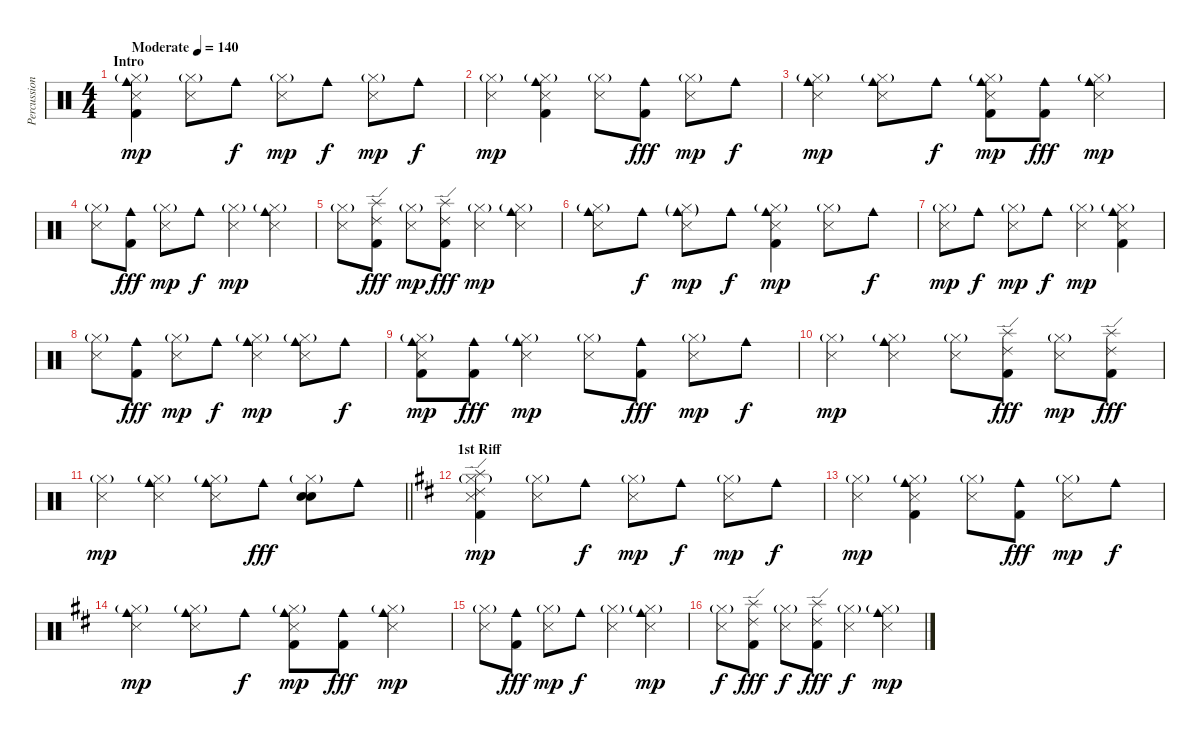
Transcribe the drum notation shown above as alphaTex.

\track ("Percussions" "Percussion") {instrument percussion}
\staff {score}
\articulation defaults
\ts (4 4)
\section ("" "Intro")
\tempo (140 "Moderate")
\clef neutral
\ks c
("Cowbell medium (hit)" "Snare (side stick) 3" "Kick (hit) 2" "Hi-Hat (closed)"{g}).4{dy mp} ("Snare (side stick) 3" "Hi-Hat (closed)"{g}).8 "Cowbell medium (hit)".8{dy f} ("Snare (side stick) 3" "Hi-Hat (closed)"{g}).8{dy mp} "Cowbell medium (hit)".8{dy f} ("Snare (side stick) 3" "Hi-Hat (closed)"{g}).8{dy mp} "Cowbell medium (hit)".8{dy f} |
("Snare (side stick) 3" "Hi-Hat (closed)"{g}).4{dy mp} ("Cowbell medium (hit)" "Snare (side stick) 3" "Kick (hit) 2" "Hi-Hat (closed)"{g}).4 ("Snare (side stick) 3" "Hi-Hat (closed)"{g}).8 ("Cowbell medium (hit)" "Kick (hit) 2").8{dy fff} ("Snare (side stick) 3" "Hi-Hat (closed)"{g}).8{dy mp} "Cowbell medium (hit)".8{dy f} |
("Cowbell medium (hit)" "Snare (side stick) 3" "Hi-Hat (closed)"{g}).4{dy mp} ("Cowbell medium (hit)" "Snare (side stick) 3" "Hi-Hat (closed)"{g}).8 "Cowbell medium (hit)".8{dy f} ("Cowbell medium (hit)" "Snare (side stick) 3" "Kick (hit) 2" "Hi-Hat (closed)"{g}).8{dy mp} ("Cowbell medium (hit)" "Kick (hit) 2").8{dy fff} ("Cowbell medium (hit)" "Snare (side stick) 3" "Hi-Hat (closed)"{g}).4{dy mp} |
("Snare (side stick) 3" "Hi-Hat (closed)"{g}).8 ("Cowbell medium (hit)" "Kick (hit) 2").8{dy fff} ("Snare (side stick) 3" "Hi-Hat (closed)"{g}).8{dy mp} "Cowbell medium (hit)".8{dy f} ("Snare (side stick) 3" "Hi-Hat (closed)"{g}).4{dy mp} ("Cowbell medium (hit)" "Snare (side stick) 3" "Hi-Hat (closed)"{g}).4 |
("Snare (side stick) 3" "Hi-Hat (closed)"{g}).8 ("Ride (edge) 2" "Splash (hit)" "Kick (hit) 2").8{dy fff} ("Snare (side stick) 3" "Hi-Hat (closed)"{g}).8{dy mp} ("Ride (edge) 2" "Splash (hit)" "Kick (hit) 2").8{dy fff} ("Snare (side stick) 3" "Hi-Hat (closed)"{g}).4{dy mp} ("Cowbell medium (hit)" "Snare (side stick) 3" "Hi-Hat (closed)"{g}).4 |
("Cowbell medium (hit)" "Snare (side stick) 3" "Hi-Hat (closed)"{g}).8 "Cowbell medium (hit)".8{dy f} ("Cowbell medium (hit)"{g} "Snare (side stick) 3" "Hi-Hat (closed)"{g}).8{dy mp} "Cowbell medium (hit)".8{dy f} ("Cowbell medium (hit)" "Snare (side stick) 3" "Kick (hit) 2" "Hi-Hat (closed)"{g}).4{dy mp} ("Snare (side stick) 3" "Hi-Hat (closed)"{g}).8 "Cowbell medium (hit)".8{dy f} |
("Snare (side stick) 3" "Hi-Hat (closed)"{g}).8{dy mp} "Cowbell medium (hit)".8{dy f} ("Snare (side stick) 3" "Hi-Hat (closed)"{g}).8{dy mp} "Cowbell medium (hit)".8{dy f} ("Snare (side stick) 3" "Hi-Hat (closed)"{g}).4{dy mp} ("Cowbell medium (hit)" "Snare (side stick) 3" "Kick (hit) 2" "Hi-Hat (closed)"{g}).4 |
("Snare (side stick) 3" "Hi-Hat (closed)"{g}).8 ("Cowbell medium (hit)" "Kick (hit) 2").8{dy fff} ("Snare (side stick) 3" "Hi-Hat (closed)"{g}).8{dy mp} "Cowbell medium (hit)".8{dy f} ("Cowbell medium (hit)" "Snare (side stick) 3" "Hi-Hat (closed)"{g}).4{dy mp} ("Cowbell medium (hit)" "Snare (side stick) 3" "Hi-Hat (closed)"{g}).8 "Cowbell medium (hit)".8{dy f} |
("Cowbell medium (hit)" "Snare (side stick) 3" "Kick (hit) 2" "Hi-Hat (closed)"{g}).8{dy mp} ("Cowbell medium (hit)" "Kick (hit) 2").8{dy fff} ("Cowbell medium (hit)" "Snare (side stick) 3" "Hi-Hat (closed)"{g}).4{dy mp} ("Snare (side stick) 3" "Hi-Hat (closed)"{g}).8 ("Cowbell medium (hit)" "Kick (hit) 2").8{dy fff} ("Snare (side stick) 3" "Hi-Hat (closed)"{g}).8{dy mp} "Cowbell medium (hit)".8{dy f} |
("Snare (side stick) 3" "Hi-Hat (closed)"{g}).4{dy mp} ("Cowbell medium (hit)" "Snare (side stick) 3" "Hi-Hat (closed)"{g}).4 ("Snare (side stick) 3" "Hi-Hat (closed)"{g}).8 ("Ride (edge) 2" "Splash (hit)" "Kick (hit) 2").8{dy fff} ("Snare (side stick) 3" "Hi-Hat (closed)"{g}).8{dy mp} ("Ride (edge) 2" "Splash (hit)" "Kick (hit) 2").8{dy fff} |
\barLineRight lightlight
("Snare (side stick) 3" "Hi-Hat (closed)"{g}).4{dy mp} ("Cowbell medium (hit)" "Snare (side stick) 3" "Hi-Hat (closed)"{g}).4 ("Cowbell medium (hit)" "Snare (side stick) 3" "Hi-Hat (closed)"{g}).8 "Cowbell medium (hit)".8{dy fff} ("Electric Snare (hit)" "Snare (hit) 2" "Hi-Hat (closed)"{g}).8 "Cowbell medium (hit)".8 |
\section ("" "1st Riff")
\ks d
("Splash (hit)" "Ride (edge) 2" "Snare (side stick) 3" "Kick (hit) 2" "Hi-Hat (closed)"{g}).4{dy mp} ("Snare (side stick) 3" "Hi-Hat (closed)"{g}).8 "Cowbell medium (hit)".8{dy f} ("Snare (side stick) 3" "Hi-Hat (closed)"{g}).8{dy mp} "Cowbell medium (hit)".8{dy f} ("Snare (side stick) 3" "Hi-Hat (closed)"{g}).8{dy mp} "Cowbell medium (hit)".8{dy f} |
("Snare (side stick) 3" "Hi-Hat (closed)"{g}).4{dy mp} ("Cowbell medium (hit)" "Snare (side stick) 3" "Kick (hit) 2" "Hi-Hat (closed)"{g}).4 ("Snare (side stick) 3" "Hi-Hat (closed)"{g}).8 ("Cowbell medium (hit)" "Kick (hit) 2").8{dy fff} ("Snare (side stick) 3" "Hi-Hat (closed)"{g}).8{dy mp} "Cowbell medium (hit)".8{dy f} |
("Cowbell medium (hit)" "Snare (side stick) 3" "Hi-Hat (closed)"{g}).4{dy mp} ("Cowbell medium (hit)" "Snare (side stick) 3" "Hi-Hat (closed)"{g}).8 "Cowbell medium (hit)".8{dy f} ("Cowbell medium (hit)" "Snare (side stick) 3" "Kick (hit) 2" "Hi-Hat (closed)"{g}).8{dy mp} ("Cowbell medium (hit)" "Kick (hit) 2").8{dy fff} ("Cowbell medium (hit)" "Snare (side stick) 3" "Hi-Hat (closed)"{g}).4{dy mp} |
("Snare (side stick) 3" "Hi-Hat (closed)"{g}).8 ("Cowbell medium (hit)" "Kick (hit) 2").8{dy fff} ("Snare (side stick) 3" "Hi-Hat (closed)"{g}).8{dy mp} "Cowbell medium (hit)".8{dy f} ("Snare (side stick) 3" "Hi-Hat (closed)"{g}).4 ("Cowbell medium (hit)" "Snare (side stick) 3" "Hi-Hat (closed)"{g}).4{dy mp} |
("Snare (side stick) 3" "Hi-Hat (closed)"{g}).8{dy f} ("Ride (edge) 2" "Splash (hit)" "Kick (hit) 2").8{dy fff} ("Snare (side stick) 3" "Hi-Hat (closed)"{g}).8{dy f} ("Ride (edge) 2" "Splash (hit)" "Kick (hit) 2").8{dy fff} ("Snare (side stick) 3" "Hi-Hat (closed)"{g}).4{dy f} ("Cowbell medium (hit)" "Snare (side stick) 3" "Hi-Hat (closed)"{g}).4{dy mp}
